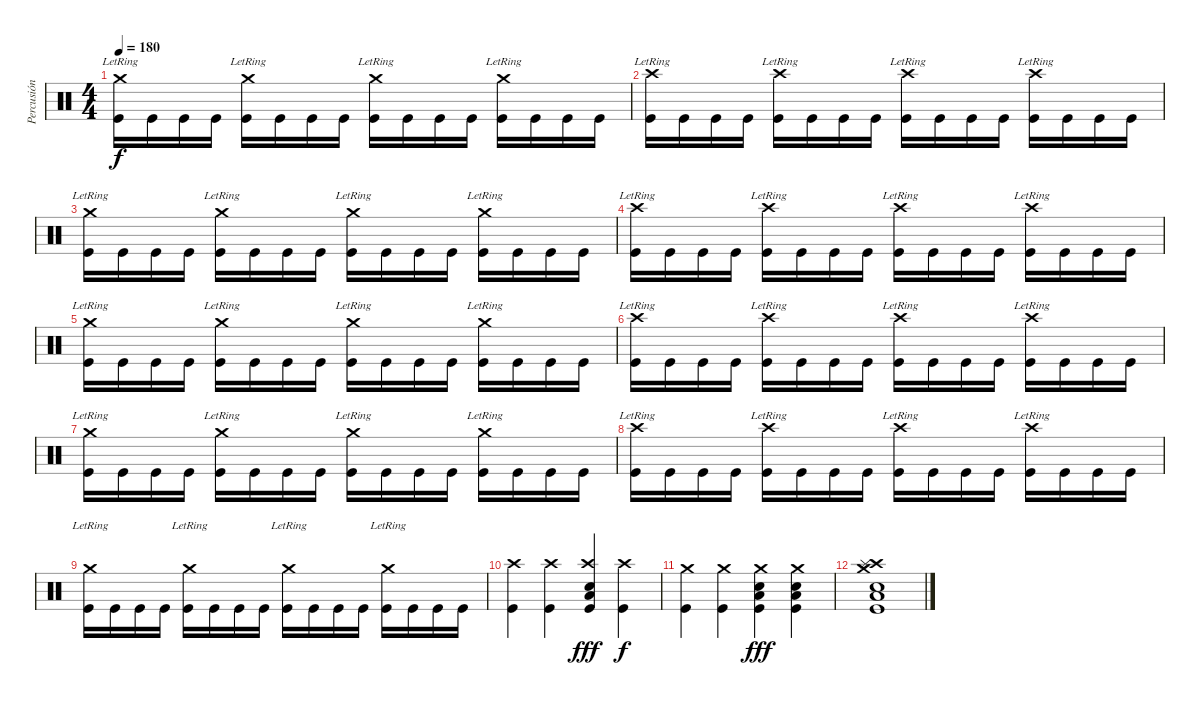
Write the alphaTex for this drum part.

\track ("Percusión" "Percusión") {instrument percussion}
\staff {score}
\articulation defaults
\ts (4 4)
\tempo 180
\clef neutral
\ks c
("Crash medium (hit)"{lr} "Kick (hit)").16{dy f} "Kick (hit)".16 "Kick (hit)".16 "Kick (hit)".16 ("Crash medium (hit)"{lr} "Kick (hit)").16 "Kick (hit)".16 "Kick (hit)".16 "Kick (hit)".16 ("Crash medium (hit)"{lr} "Kick (hit)").16 "Kick (hit)".16 "Kick (hit)".16 "Kick (hit)".16 ("Crash medium (hit)"{lr} "Kick (hit)").16 "Kick (hit)".16 "Kick (hit)".16 "Kick (hit)".16 |
("Crash high (hit)"{lr} "Kick (hit)").16 "Kick (hit)".16 "Kick (hit)".16 "Kick (hit)".16 ("Crash high (hit)"{lr} "Kick (hit)").16 "Kick (hit)".16 "Kick (hit)".16 "Kick (hit)".16 ("Crash high (hit)"{lr} "Kick (hit)").16 "Kick (hit)".16 "Kick (hit)".16 "Kick (hit)".16 ("Crash high (hit)"{lr} "Kick (hit)").16 "Kick (hit)".16 "Kick (hit)".16 "Kick (hit)".16 |
("Crash medium (hit)"{lr} "Kick (hit)").16 "Kick (hit)".16 "Kick (hit)".16 "Kick (hit)".16 ("Crash medium (hit)"{lr} "Kick (hit)").16 "Kick (hit)".16 "Kick (hit)".16 "Kick (hit)".16 ("Crash medium (hit)"{lr} "Kick (hit)").16 "Kick (hit)".16 "Kick (hit)".16 "Kick (hit)".16 ("Crash medium (hit)"{lr} "Kick (hit)").16 "Kick (hit)".16 "Kick (hit)".16 "Kick (hit)".16 |
("Crash high (hit)"{lr} "Kick (hit)").16 "Kick (hit)".16 "Kick (hit)".16 "Kick (hit)".16 ("Crash high (hit)"{lr} "Kick (hit)").16 "Kick (hit)".16 "Kick (hit)".16 "Kick (hit)".16 ("Crash high (hit)"{lr} "Kick (hit)").16 "Kick (hit)".16 "Kick (hit)".16 "Kick (hit)".16 ("Crash high (hit)"{lr} "Kick (hit)").16 "Kick (hit)".16 "Kick (hit)".16 "Kick (hit)".16 |
("Crash medium (hit)"{lr} "Kick (hit)").16 "Kick (hit)".16 "Kick (hit)".16 "Kick (hit)".16 ("Crash medium (hit)"{lr} "Kick (hit)").16 "Kick (hit)".16 "Kick (hit)".16 "Kick (hit)".16 ("Crash medium (hit)"{lr} "Kick (hit)").16 "Kick (hit)".16 "Kick (hit)".16 "Kick (hit)".16 ("Crash medium (hit)"{lr} "Kick (hit)").16 "Kick (hit)".16 "Kick (hit)".16 "Kick (hit)".16 |
("Crash high (hit)"{lr} "Kick (hit)").16 "Kick (hit)".16 "Kick (hit)".16 "Kick (hit)".16 ("Crash high (hit)"{lr} "Kick (hit)").16 "Kick (hit)".16 "Kick (hit)".16 "Kick (hit)".16 ("Crash high (hit)"{lr} "Kick (hit)").16 "Kick (hit)".16 "Kick (hit)".16 "Kick (hit)".16 ("Crash high (hit)"{lr} "Kick (hit)").16 "Kick (hit)".16 "Kick (hit)".16 "Kick (hit)".16 |
("Crash medium (hit)"{lr} "Kick (hit)").16 "Kick (hit)".16 "Kick (hit)".16 "Kick (hit)".16 ("Crash medium (hit)"{lr} "Kick (hit)").16 "Kick (hit)".16 "Kick (hit)".16 "Kick (hit)".16 ("Crash medium (hit)"{lr} "Kick (hit)").16 "Kick (hit)".16 "Kick (hit)".16 "Kick (hit)".16 ("Crash medium (hit)"{lr} "Kick (hit)").16 "Kick (hit)".16 "Kick (hit)".16 "Kick (hit)".16 |
("Crash high (hit)"{lr} "Kick (hit)").16 "Kick (hit)".16 "Kick (hit)".16 "Kick (hit)".16 ("Crash high (hit)"{lr} "Kick (hit)").16 "Kick (hit)".16 "Kick (hit)".16 "Kick (hit)".16 ("Crash high (hit)"{lr} "Kick (hit)").16 "Kick (hit)".16 "Kick (hit)".16 "Kick (hit)".16 ("Crash high (hit)"{lr} "Kick (hit)").16 "Kick (hit)".16 "Kick (hit)".16 "Kick (hit)".16 |
("Crash medium (hit)"{lr} "Kick (hit)").16 "Kick (hit)".16 "Kick (hit)".16 "Kick (hit)".16 ("Crash medium (hit)"{lr} "Kick (hit)").16 "Kick (hit)".16 "Kick (hit)".16 "Kick (hit)".16 ("Crash medium (hit)"{lr} "Kick (hit)").16 "Kick (hit)".16 "Kick (hit)".16 "Kick (hit)".16 ("Crash medium (hit)"{lr} "Kick (hit)").16 "Kick (hit)".16 "Kick (hit)".16 "Kick (hit)".16 |
("Crash high (hit)" "Kick (hit)").4 ("Crash high (hit)" "Kick (hit)").4 ("Crash high (hit)" "Electric Snare (hit)" "Low Tom (hit)" "Kick (hit)").4{dy fff} ("Crash high (hit)" "Kick (hit)").4{dy f} |
("Crash medium (hit)" "Kick (hit)").4 ("Crash medium (hit)" "Kick (hit)").4 ("Crash medium (hit)" "Electric Snare (hit)" "Low Tom (hit)" "Kick (hit)").4{dy fff} ("Crash medium (hit)" "Electric Snare (hit)" "Low Tom (hit)" "Kick (hit)").4 |
("Kick (hit)" "Crash high (hit)" "Splash (hit)" "Crash medium (hit)" "Electric Snare (hit)" "Low Tom (hit)").1
